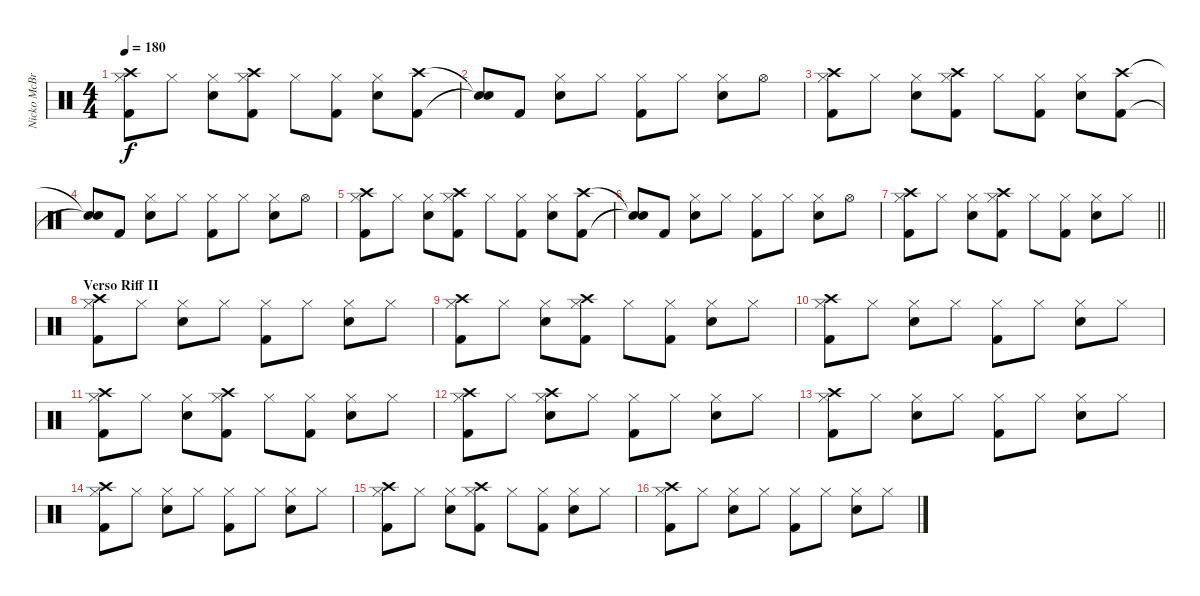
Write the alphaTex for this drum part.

\track ("Nicko McBrain" "Nicko McBr") {instrument percussion}
\staff {score}
\articulation defaults
\ts (4 4)
\tempo 180
\clef neutral
\ks c
("Kick (hit) 2" "Hi-Hat (closed)" "Crash high (hit)").8{dy f} "Hi-Hat (closed)".8 ("Snare (hit) 2" "Hi-Hat (closed)").8 ("Kick (hit) 2" "Hi-Hat (closed)" "Crash high (hit)").8 "Hi-Hat (closed)".8 ("Kick (hit) 2" "Hi-Hat (closed)").8 ("Snare (hit) 2" "Hi-Hat (closed)").8 ("Kick (hit) 2" "Crash high (hit)").8 |
("Snare (hit)"{t} "Snare (hit)"{t}).8 "Kick (hit) 2".8 ("Snare (hit) 2" "Hi-Hat (closed)").8 "Hi-Hat (closed)".8 ("Kick (hit) 2" "Hi-Hat (closed)").8 "Hi-Hat (closed)".8 ("Snare (hit) 2" "Hi-Hat (closed)").8 "Hi-Hat (open)".8 |
("Kick (hit) 2" "Hi-Hat (closed)" "Crash high (hit)").8 "Hi-Hat (closed)".8 ("Snare (hit) 2" "Hi-Hat (closed)").8 ("Kick (hit) 2" "Hi-Hat (closed)" "Crash high (hit)").8 "Hi-Hat (closed)".8 ("Kick (hit) 2" "Hi-Hat (closed)").8 ("Snare (hit) 2" "Hi-Hat (closed)").8 ("Kick (hit) 2" "Crash high (hit)").8 |
("Snare (hit)"{t} "Snare (hit)"{t}).8 "Kick (hit) 2".8 ("Snare (hit) 2" "Hi-Hat (closed)").8 "Hi-Hat (closed)".8 ("Kick (hit) 2" "Hi-Hat (closed)").8 "Hi-Hat (closed)".8 ("Snare (hit) 2" "Hi-Hat (closed)").8 "Hi-Hat (open)".8 |
("Kick (hit) 2" "Hi-Hat (closed)" "Crash high (hit)").8 "Hi-Hat (closed)".8 ("Snare (hit) 2" "Hi-Hat (closed)").8 ("Kick (hit) 2" "Hi-Hat (closed)" "Crash high (hit)").8 "Hi-Hat (closed)".8 ("Kick (hit) 2" "Hi-Hat (closed)").8 ("Snare (hit) 2" "Hi-Hat (closed)").8 ("Kick (hit) 2" "Crash high (hit)").8 |
("Snare (hit)"{t} "Snare (hit)"{t}).8 "Kick (hit) 2".8 ("Snare (hit) 2" "Hi-Hat (closed)").8 "Hi-Hat (closed)".8 ("Kick (hit) 2" "Hi-Hat (closed)").8 "Hi-Hat (closed)".8 ("Snare (hit) 2" "Hi-Hat (closed)").8 "Hi-Hat (open)".8 |
\barLineRight lightlight
("Kick (hit) 2" "Hi-Hat (closed)" "Crash high (hit)").8 "Hi-Hat (closed)".8 ("Snare (hit) 2" "Hi-Hat (closed)").8 ("Kick (hit) 2" "Hi-Hat (closed)" "Crash high (hit)").8 "Hi-Hat (closed)".8 ("Kick (hit) 2" "Hi-Hat (closed)").8 ("Snare (hit) 2" "Hi-Hat (closed)").8 "Hi-Hat (closed)".8 |
\section ("" "Verso Riff II")
("Hi-Hat (closed)" "Kick (hit) 2" "Crash high (hit)").8 "Hi-Hat (closed)".8 ("Hi-Hat (closed)" "Snare (hit) 2").8 "Hi-Hat (closed)".8 ("Hi-Hat (closed)" "Kick (hit) 2").8 "Hi-Hat (closed)".8 ("Hi-Hat (closed)" "Snare (hit) 2").8 "Hi-Hat (closed)".8 |
("Hi-Hat (closed)" "Kick (hit) 2" "Crash high (hit)").8 "Hi-Hat (closed)".8 ("Hi-Hat (closed)" "Snare (hit) 2").8 ("Hi-Hat (closed)" "Kick (hit) 2" "Crash high (hit)").8 "Hi-Hat (closed)".8 ("Hi-Hat (closed)" "Kick (hit) 2").8 ("Hi-Hat (closed)" "Snare (hit) 2").8 "Hi-Hat (closed)".8 |
("Hi-Hat (closed)" "Kick (hit) 2" "Crash high (hit)").8 "Hi-Hat (closed)".8 ("Hi-Hat (closed)" "Snare (hit) 2").8 "Hi-Hat (closed)".8 ("Hi-Hat (closed)" "Kick (hit) 2").8 "Hi-Hat (closed)".8 ("Hi-Hat (closed)" "Snare (hit) 2").8 "Hi-Hat (closed)".8 |
("Hi-Hat (closed)" "Kick (hit) 2" "Crash high (hit)").8 "Hi-Hat (closed)".8 ("Hi-Hat (closed)" "Snare (hit) 2").8 ("Hi-Hat (closed)" "Kick (hit) 2" "Crash high (hit)").8 "Hi-Hat (closed)".8 ("Hi-Hat (closed)" "Kick (hit) 2").8 ("Hi-Hat (closed)" "Snare (hit) 2").8 "Hi-Hat (closed)".8 |
("Hi-Hat (closed)" "Kick (hit) 2" "Crash high (hit)").8 "Hi-Hat (closed)".8 ("Hi-Hat (closed)" "Snare (hit) 2" "Crash high (hit)").8 "Hi-Hat (closed)".8 ("Hi-Hat (closed)" "Kick (hit) 2").8 "Hi-Hat (closed)".8 ("Hi-Hat (closed)" "Snare (hit) 2").8 "Hi-Hat (closed)".8 |
("Hi-Hat (closed)" "Kick (hit) 2" "Crash high (hit)").8 "Hi-Hat (closed)".8 ("Hi-Hat (closed)" "Snare (hit) 2").8 "Hi-Hat (closed)".8 ("Hi-Hat (closed)" "Kick (hit) 2").8 "Hi-Hat (closed)".8 ("Hi-Hat (closed)" "Snare (hit) 2").8 "Hi-Hat (closed)".8 |
("Hi-Hat (closed)" "Kick (hit) 2" "Crash high (hit)").8 "Hi-Hat (closed)".8 ("Hi-Hat (closed)" "Snare (hit) 2").8 "Hi-Hat (closed)".8 ("Hi-Hat (closed)" "Kick (hit) 2").8 "Hi-Hat (closed)".8 ("Hi-Hat (closed)" "Snare (hit) 2").8 "Hi-Hat (closed)".8 |
("Hi-Hat (closed)" "Kick (hit) 2" "Crash high (hit)").8 "Hi-Hat (closed)".8 ("Hi-Hat (closed)" "Snare (hit) 2").8 ("Hi-Hat (closed)" "Kick (hit) 2" "Crash high (hit)").8 "Hi-Hat (closed)".8 ("Hi-Hat (closed)" "Kick (hit) 2").8 ("Hi-Hat (closed)" "Snare (hit) 2").8 "Hi-Hat (closed)".8 |
("Hi-Hat (closed)" "Kick (hit) 2" "Crash high (hit)").8 "Hi-Hat (closed)".8 ("Hi-Hat (closed)" "Snare (hit) 2").8 "Hi-Hat (closed)".8 ("Hi-Hat (closed)" "Kick (hit) 2").8 "Hi-Hat (closed)".8 ("Hi-Hat (closed)" "Snare (hit) 2").8 "Hi-Hat (closed)".8
